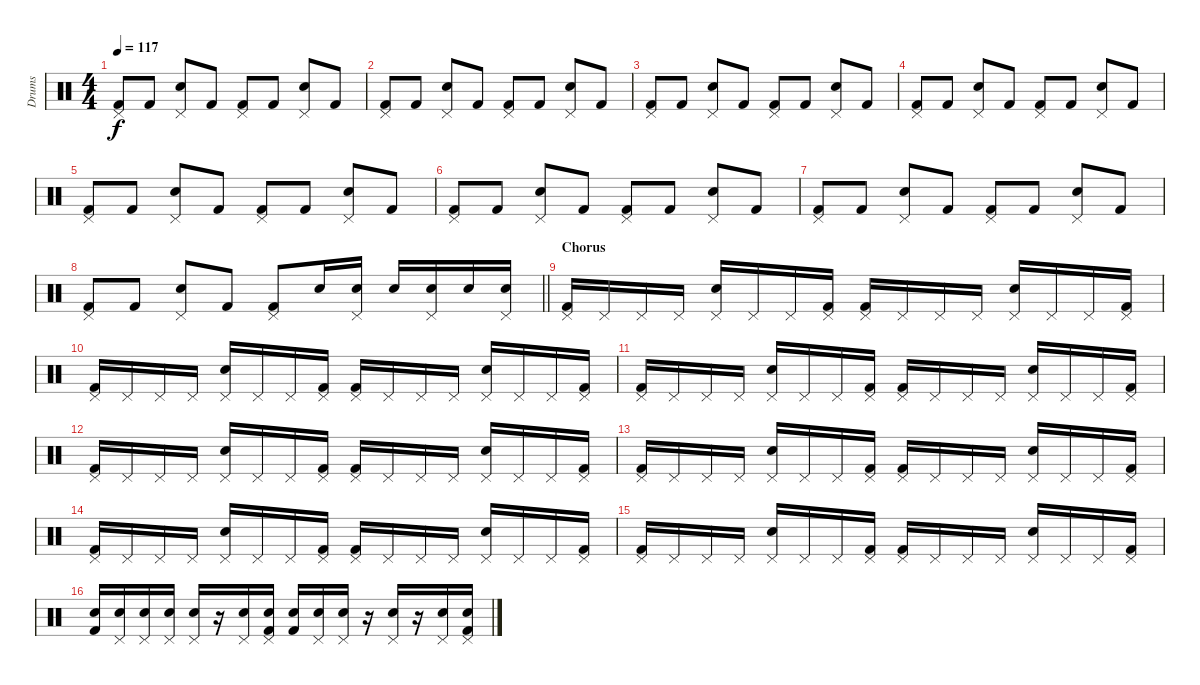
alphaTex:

\track ("Drums" "Drums") {instrument percussion}
\staff {score}
\articulation defaults
\ts (4 4)
\tempo 117
\clef neutral
\ks c
("Kick (hit) 2" "Pedal Hi-Hat (hit)").8{dy f} "Kick (hit) 2".8 ("Snare (hit) 2" "Pedal Hi-Hat (hit)").8 "Kick (hit) 2".8 ("Kick (hit) 2" "Pedal Hi-Hat (hit)").8 "Kick (hit) 2".8 ("Snare (hit) 2" "Pedal Hi-Hat (hit)").8 "Kick (hit) 2".8 |
("Kick (hit) 2" "Pedal Hi-Hat (hit)").8 "Kick (hit) 2".8 ("Snare (hit) 2" "Pedal Hi-Hat (hit)").8 "Kick (hit) 2".8 ("Kick (hit) 2" "Pedal Hi-Hat (hit)").8 "Kick (hit) 2".8 ("Snare (hit) 2" "Pedal Hi-Hat (hit)").8 "Kick (hit) 2".8 |
("Kick (hit) 2" "Pedal Hi-Hat (hit)").8 "Kick (hit) 2".8 ("Snare (hit) 2" "Pedal Hi-Hat (hit)").8 "Kick (hit) 2".8 ("Kick (hit) 2" "Pedal Hi-Hat (hit)").8 "Kick (hit) 2".8 ("Snare (hit) 2" "Pedal Hi-Hat (hit)").8 "Kick (hit) 2".8 |
("Kick (hit) 2" "Pedal Hi-Hat (hit)").8 "Kick (hit) 2".8 ("Snare (hit) 2" "Pedal Hi-Hat (hit)").8 "Kick (hit) 2".8 ("Kick (hit) 2" "Pedal Hi-Hat (hit)").8 "Kick (hit) 2".8 ("Snare (hit) 2" "Pedal Hi-Hat (hit)").8 "Kick (hit) 2".8 |
("Kick (hit) 2" "Pedal Hi-Hat (hit)").8 "Kick (hit) 2".8 ("Snare (hit) 2" "Pedal Hi-Hat (hit)").8 "Kick (hit) 2".8 ("Kick (hit) 2" "Pedal Hi-Hat (hit)").8 "Kick (hit) 2".8 ("Snare (hit) 2" "Pedal Hi-Hat (hit)").8 "Kick (hit) 2".8 |
("Kick (hit) 2" "Pedal Hi-Hat (hit)").8 "Kick (hit) 2".8 ("Snare (hit) 2" "Pedal Hi-Hat (hit)").8 "Kick (hit) 2".8 ("Kick (hit) 2" "Pedal Hi-Hat (hit)").8 "Kick (hit) 2".8 ("Snare (hit) 2" "Pedal Hi-Hat (hit)").8 "Kick (hit) 2".8 |
("Kick (hit) 2" "Pedal Hi-Hat (hit)").8 "Kick (hit) 2".8 ("Snare (hit) 2" "Pedal Hi-Hat (hit)").8 "Kick (hit) 2".8 ("Kick (hit) 2" "Pedal Hi-Hat (hit)").8 "Kick (hit) 2".8 ("Snare (hit) 2" "Pedal Hi-Hat (hit)").8 "Kick (hit) 2".8 |
\barLineRight lightlight
("Kick (hit) 2" "Pedal Hi-Hat (hit)").8 "Kick (hit) 2".8 ("Snare (hit) 2" "Pedal Hi-Hat (hit)").8 "Kick (hit) 2".8 ("Kick (hit) 2" "Pedal Hi-Hat (hit)").8 "Snare (hit) 2".16 ("Snare (hit) 2" "Pedal Hi-Hat (hit)").16 "Snare (hit) 2".16 ("Snare (hit) 2" "Pedal Hi-Hat (hit)").16 "Snare (hit) 2".16 ("Snare (hit) 2" "Pedal Hi-Hat (hit)").16 |
\section ("" "Chorus")
("Kick (hit) 2" "Pedal Hi-Hat (hit)").16 "Pedal Hi-Hat (hit)".16 "Pedal Hi-Hat (hit)".16 "Pedal Hi-Hat (hit)".16 ("Snare (hit) 2" "Pedal Hi-Hat (hit)").16 "Pedal Hi-Hat (hit)".16 "Pedal Hi-Hat (hit)".16 ("Kick (hit) 2" "Pedal Hi-Hat (hit)").16 ("Kick (hit) 2" "Pedal Hi-Hat (hit)").16 "Pedal Hi-Hat (hit)".16 "Pedal Hi-Hat (hit)".16 "Pedal Hi-Hat (hit)".16 ("Snare (hit) 2" "Pedal Hi-Hat (hit)").16 "Pedal Hi-Hat (hit)".16 "Pedal Hi-Hat (hit)".16 ("Kick (hit) 2" "Pedal Hi-Hat (hit)").16 |
("Kick (hit) 2" "Pedal Hi-Hat (hit)").16 "Pedal Hi-Hat (hit)".16 "Pedal Hi-Hat (hit)".16 "Pedal Hi-Hat (hit)".16 ("Snare (hit) 2" "Pedal Hi-Hat (hit)").16 "Pedal Hi-Hat (hit)".16 "Pedal Hi-Hat (hit)".16 ("Kick (hit) 2" "Pedal Hi-Hat (hit)").16 ("Kick (hit) 2" "Pedal Hi-Hat (hit)").16 "Pedal Hi-Hat (hit)".16 "Pedal Hi-Hat (hit)".16 "Pedal Hi-Hat (hit)".16 ("Snare (hit) 2" "Pedal Hi-Hat (hit)").16 "Pedal Hi-Hat (hit)".16 "Pedal Hi-Hat (hit)".16 ("Kick (hit) 2" "Pedal Hi-Hat (hit)").16 |
("Kick (hit) 2" "Pedal Hi-Hat (hit)").16 "Pedal Hi-Hat (hit)".16 "Pedal Hi-Hat (hit)".16 "Pedal Hi-Hat (hit)".16 ("Snare (hit) 2" "Pedal Hi-Hat (hit)").16 "Pedal Hi-Hat (hit)".16 "Pedal Hi-Hat (hit)".16 ("Kick (hit) 2" "Pedal Hi-Hat (hit)").16 ("Kick (hit) 2" "Pedal Hi-Hat (hit)").16 "Pedal Hi-Hat (hit)".16 "Pedal Hi-Hat (hit)".16 "Pedal Hi-Hat (hit)".16 ("Snare (hit) 2" "Pedal Hi-Hat (hit)").16 "Pedal Hi-Hat (hit)".16 "Pedal Hi-Hat (hit)".16 ("Kick (hit) 2" "Pedal Hi-Hat (hit)").16 |
("Kick (hit) 2" "Pedal Hi-Hat (hit)").16 "Pedal Hi-Hat (hit)".16 "Pedal Hi-Hat (hit)".16 "Pedal Hi-Hat (hit)".16 ("Snare (hit) 2" "Pedal Hi-Hat (hit)").16 "Pedal Hi-Hat (hit)".16 "Pedal Hi-Hat (hit)".16 ("Kick (hit) 2" "Pedal Hi-Hat (hit)").16 ("Kick (hit) 2" "Pedal Hi-Hat (hit)").16 "Pedal Hi-Hat (hit)".16 "Pedal Hi-Hat (hit)".16 "Pedal Hi-Hat (hit)".16 ("Snare (hit) 2" "Pedal Hi-Hat (hit)").16 "Pedal Hi-Hat (hit)".16 "Pedal Hi-Hat (hit)".16 ("Kick (hit) 2" "Pedal Hi-Hat (hit)").16 |
("Kick (hit) 2" "Pedal Hi-Hat (hit)").16 "Pedal Hi-Hat (hit)".16 "Pedal Hi-Hat (hit)".16 "Pedal Hi-Hat (hit)".16 ("Snare (hit) 2" "Pedal Hi-Hat (hit)").16 "Pedal Hi-Hat (hit)".16 "Pedal Hi-Hat (hit)".16 ("Kick (hit) 2" "Pedal Hi-Hat (hit)").16 ("Kick (hit) 2" "Pedal Hi-Hat (hit)").16 "Pedal Hi-Hat (hit)".16 "Pedal Hi-Hat (hit)".16 "Pedal Hi-Hat (hit)".16 ("Snare (hit) 2" "Pedal Hi-Hat (hit)").16 "Pedal Hi-Hat (hit)".16 "Pedal Hi-Hat (hit)".16 ("Kick (hit) 2" "Pedal Hi-Hat (hit)").16 |
("Kick (hit) 2" "Pedal Hi-Hat (hit)").16 "Pedal Hi-Hat (hit)".16 "Pedal Hi-Hat (hit)".16 "Pedal Hi-Hat (hit)".16 ("Snare (hit) 2" "Pedal Hi-Hat (hit)").16 "Pedal Hi-Hat (hit)".16 "Pedal Hi-Hat (hit)".16 ("Kick (hit) 2" "Pedal Hi-Hat (hit)").16 ("Kick (hit) 2" "Pedal Hi-Hat (hit)").16 "Pedal Hi-Hat (hit)".16 "Pedal Hi-Hat (hit)".16 "Pedal Hi-Hat (hit)".16 ("Snare (hit) 2" "Pedal Hi-Hat (hit)").16 "Pedal Hi-Hat (hit)".16 "Pedal Hi-Hat (hit)".16 ("Kick (hit) 2" "Pedal Hi-Hat (hit)").16 |
("Kick (hit) 2" "Pedal Hi-Hat (hit)").16 "Pedal Hi-Hat (hit)".16 "Pedal Hi-Hat (hit)".16 "Pedal Hi-Hat (hit)".16 ("Snare (hit) 2" "Pedal Hi-Hat (hit)").16 "Pedal Hi-Hat (hit)".16 "Pedal Hi-Hat (hit)".16 ("Kick (hit) 2" "Pedal Hi-Hat (hit)").16 ("Kick (hit) 2" "Pedal Hi-Hat (hit)").16 "Pedal Hi-Hat (hit)".16 "Pedal Hi-Hat (hit)".16 "Pedal Hi-Hat (hit)".16 ("Snare (hit) 2" "Pedal Hi-Hat (hit)").16 "Pedal Hi-Hat (hit)".16 "Pedal Hi-Hat (hit)".16 ("Kick (hit) 2" "Pedal Hi-Hat (hit)").16 |
("Kick (hit) 2" "Snare (hit) 2").16 ("Snare (hit) 2" "Pedal Hi-Hat (hit)").16 ("Snare (hit) 2" "Pedal Hi-Hat (hit)").16 ("Snare (hit) 2" "Pedal Hi-Hat (hit)").16 ("Snare (hit) 2" "Pedal Hi-Hat (hit)").16 r.16 ("Snare (hit) 2" "Pedal Hi-Hat (hit)").16 ("Kick (hit) 2" "Snare (hit) 2" "Pedal Hi-Hat (hit)").16 ("Kick (hit) 2" "Snare (hit) 2").16 ("Snare (hit) 2" "Pedal Hi-Hat (hit)").16 ("Snare (hit) 2" "Pedal Hi-Hat (hit)").16 r.16 ("Snare (hit) 2" "Pedal Hi-Hat (hit)").16 r.16 ("Snare (hit) 2" "Pedal Hi-Hat (hit)").16 ("Kick (hit) 2" "Snare (hit) 2" "Pedal Hi-Hat (hit)").16
